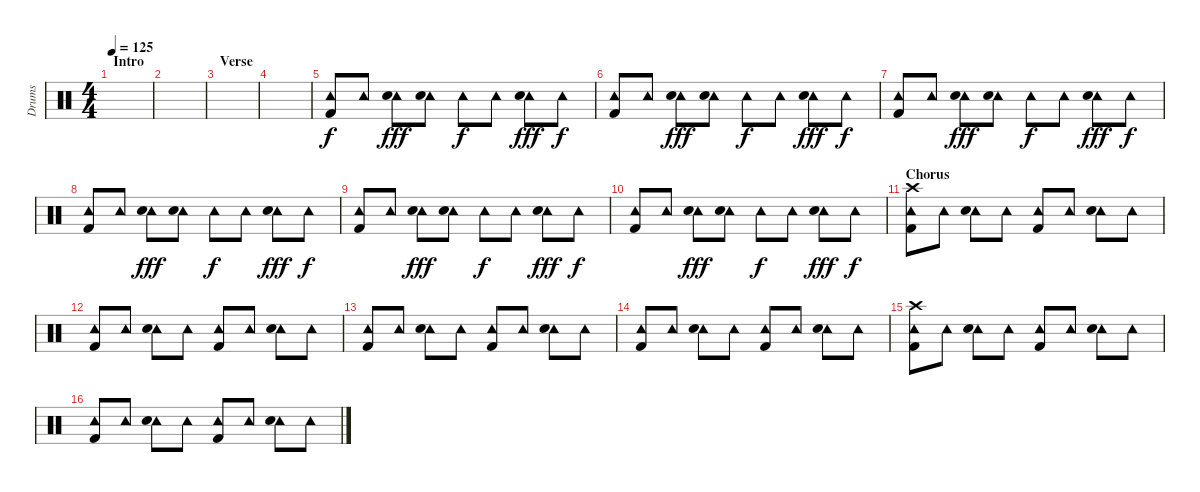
\track ("Drums" "Drums") {instrument percussion}
\staff {score}
\articulation defaults
\ts (4 4)
\section ("" "Intro")
\tempo 125
\clef neutral
\ks c
|
|
\section ("" "Verse")
|
|
("Tambourine (hit)" "Kick (hit) 2").8 "Tambourine (hit)".8 ("Tambourine (hit)" "Electric Snare (hit)").8{dy fff} ("Tambourine (hit)" "Electric Snare (hit)").8 "Tambourine (hit)".8{dy f} "Tambourine (hit)".8 ("Tambourine (hit)" "Electric Snare (hit)").8{dy fff} "Tambourine (hit)".8{dy f} |
("Tambourine (hit)" "Kick (hit) 2").8 "Tambourine (hit)".8 ("Tambourine (hit)" "Electric Snare (hit)").8{dy fff} ("Tambourine (hit)" "Electric Snare (hit)").8 "Tambourine (hit)".8{dy f} "Tambourine (hit)".8 ("Tambourine (hit)" "Electric Snare (hit)").8{dy fff} "Tambourine (hit)".8{dy f} |
("Tambourine (hit)" "Kick (hit) 2").8 "Tambourine (hit)".8 ("Tambourine (hit)" "Electric Snare (hit)").8{dy fff} ("Tambourine (hit)" "Electric Snare (hit)").8 "Tambourine (hit)".8{dy f} "Tambourine (hit)".8 ("Tambourine (hit)" "Electric Snare (hit)").8{dy fff} "Tambourine (hit)".8{dy f} |
("Tambourine (hit)" "Kick (hit) 2").8 "Tambourine (hit)".8 ("Tambourine (hit)" "Electric Snare (hit)").8{dy fff} ("Tambourine (hit)" "Electric Snare (hit)").8 "Tambourine (hit)".8{dy f} "Tambourine (hit)".8 ("Tambourine (hit)" "Electric Snare (hit)").8{dy fff} "Tambourine (hit)".8{dy f} |
("Tambourine (hit)" "Kick (hit) 2").8 "Tambourine (hit)".8 ("Tambourine (hit)" "Electric Snare (hit)").8{dy fff} ("Tambourine (hit)" "Electric Snare (hit)").8 "Tambourine (hit)".8{dy f} "Tambourine (hit)".8 ("Tambourine (hit)" "Electric Snare (hit)").8{dy fff} "Tambourine (hit)".8{dy f} |
("Tambourine (hit)" "Kick (hit) 2").8 "Tambourine (hit)".8 ("Tambourine (hit)" "Electric Snare (hit)").8{dy fff} ("Tambourine (hit)" "Electric Snare (hit)").8 "Tambourine (hit)".8{dy f} "Tambourine (hit)".8 ("Tambourine (hit)" "Electric Snare (hit)").8{dy fff} "Tambourine (hit)".8{dy f} |
\section ("" "Chorus")
("Crash high (hit)" "Tambourine (hit)" "Kick (hit) 2").8 "Tambourine (hit)".8 ("Tambourine (hit)" "Electric Snare (hit)").8 "Tambourine (hit)".8 ("Tambourine (hit)" "Kick (hit) 2").8 "Tambourine (hit)".8 ("Tambourine (hit)" "Electric Snare (hit)").8 "Tambourine (hit)".8 |
("Tambourine (hit)" "Kick (hit) 2").8 "Tambourine (hit)".8 ("Tambourine (hit)" "Electric Snare (hit)").8 "Tambourine (hit)".8 ("Tambourine (hit)" "Kick (hit) 2").8 "Tambourine (hit)".8 ("Tambourine (hit)" "Electric Snare (hit)").8 "Tambourine (hit)".8 |
("Tambourine (hit)" "Kick (hit) 2").8 "Tambourine (hit)".8 ("Tambourine (hit)" "Electric Snare (hit)").8 "Tambourine (hit)".8 ("Tambourine (hit)" "Kick (hit) 2").8 "Tambourine (hit)".8 ("Tambourine (hit)" "Electric Snare (hit)").8 "Tambourine (hit)".8 |
("Tambourine (hit)" "Kick (hit) 2").8 "Tambourine (hit)".8 ("Tambourine (hit)" "Electric Snare (hit)").8 "Tambourine (hit)".8 ("Tambourine (hit)" "Kick (hit) 2").8 "Tambourine (hit)".8 ("Tambourine (hit)" "Electric Snare (hit)").8 "Tambourine (hit)".8 |
("Crash high (hit)" "Tambourine (hit)" "Kick (hit) 2").8 "Tambourine (hit)".8 ("Tambourine (hit)" "Electric Snare (hit)").8 "Tambourine (hit)".8 ("Tambourine (hit)" "Kick (hit) 2").8 "Tambourine (hit)".8 ("Tambourine (hit)" "Electric Snare (hit)").8 "Tambourine (hit)".8 |
("Tambourine (hit)" "Kick (hit) 2").8 "Tambourine (hit)".8 ("Tambourine (hit)" "Electric Snare (hit)").8 "Tambourine (hit)".8 ("Tambourine (hit)" "Kick (hit) 2").8 "Tambourine (hit)".8 ("Tambourine (hit)" "Electric Snare (hit)").8 "Tambourine (hit)".8
